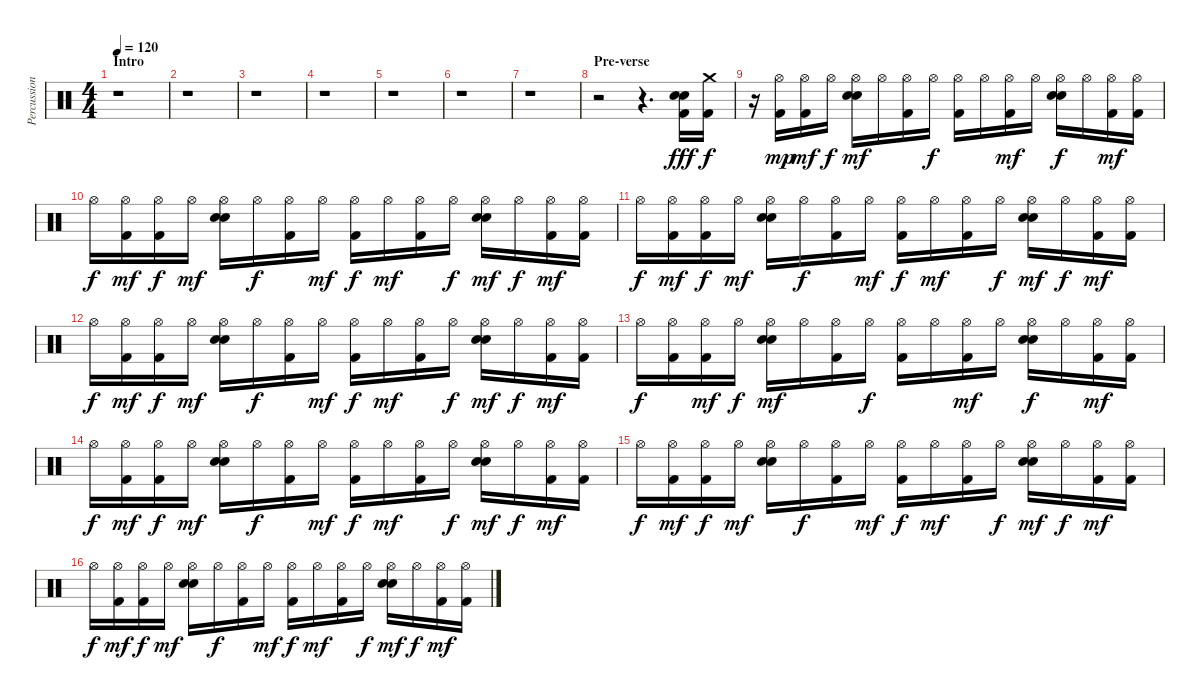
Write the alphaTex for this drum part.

\track ("Percussions" "Percussion") {instrument percussion}
\staff {score}
\articulation defaults
\ts (4 4)
\section ("" "Intro")
\tempo 120
\clef neutral
\ks c
r.1{dy fff} |
r.1 |
r.1 |
r.1 |
r.1 |
r.1 |
r.1 |
\section ("" "Pre-verse")
r.2 r.4{d} ("Snare (hit) 2" "Electric Snare (hit)" "Kick (hit) 2").16 ("Crash medium (hit)" "Kick (hit) 2").16{dy f} |
r.16 ("Hi-Hat (open)" "Kick (hit) 2").16{dy mp} ("Hi-Hat (open)" "Kick (hit) 2").16{dy mf} "Hi-Hat (open)".16{dy f} ("Hi-Hat (open)" "Snare (hit) 2" "Electric Snare (hit)").16{dy mf} "Hi-Hat (open)".16 ("Hi-Hat (open)" "Kick (hit) 2").16 "Hi-Hat (open)".16{dy f} ("Hi-Hat (open)" "Kick (hit) 2").16 "Hi-Hat (open)".16 ("Hi-Hat (open)" "Kick (hit) 2").16{dy mf} "Hi-Hat (open)".16 ("Hi-Hat (open)" "Snare (hit) 2" "Electric Snare (hit)").16{dy f} "Hi-Hat (open)".16 ("Hi-Hat (open)" "Kick (hit) 2").16{dy mf} ("Hi-Hat (open)" "Kick (hit) 2").16 |
"Hi-Hat (open)".16{dy f} ("Hi-Hat (open)" "Kick (hit) 2").16{dy mf} ("Hi-Hat (open)" "Kick (hit) 2").16{dy f} "Hi-Hat (open)".16{dy mf} ("Hi-Hat (open)" "Snare (hit) 2" "Electric Snare (hit)").16 "Hi-Hat (open)".16{dy f} ("Hi-Hat (open)" "Kick (hit) 2").16 "Hi-Hat (open)".16{dy mf} ("Hi-Hat (open)" "Kick (hit) 2").16{dy f} "Hi-Hat (open)".16{dy mf} ("Hi-Hat (open)" "Kick (hit) 2").16 "Hi-Hat (open)".16{dy f} ("Hi-Hat (open)" "Snare (hit) 2" "Electric Snare (hit)").16{dy mf} "Hi-Hat (open)".16{dy f} ("Hi-Hat (open)" "Kick (hit) 2").16{dy mf} ("Hi-Hat (open)" "Kick (hit) 2").16 |
"Hi-Hat (open)".16{dy f} ("Hi-Hat (open)" "Kick (hit) 2").16{dy mf} ("Hi-Hat (open)" "Kick (hit) 2").16{dy f} "Hi-Hat (open)".16{dy mf} ("Hi-Hat (open)" "Snare (hit) 2" "Electric Snare (hit)").16 "Hi-Hat (open)".16{dy f} ("Hi-Hat (open)" "Kick (hit) 2").16 "Hi-Hat (open)".16{dy mf} ("Hi-Hat (open)" "Kick (hit) 2").16{dy f} "Hi-Hat (open)".16{dy mf} ("Hi-Hat (open)" "Kick (hit) 2").16 "Hi-Hat (open)".16{dy f} ("Hi-Hat (open)" "Snare (hit) 2" "Electric Snare (hit)").16{dy mf} "Hi-Hat (open)".16{dy f} ("Hi-Hat (open)" "Kick (hit) 2").16{dy mf} ("Hi-Hat (open)" "Kick (hit) 2").16 |
"Hi-Hat (open)".16{dy f} ("Hi-Hat (open)" "Kick (hit) 2").16{dy mf} ("Hi-Hat (open)" "Kick (hit) 2").16{dy f} "Hi-Hat (open)".16{dy mf} ("Hi-Hat (open)" "Snare (hit) 2" "Electric Snare (hit)").16 "Hi-Hat (open)".16{dy f} ("Hi-Hat (open)" "Kick (hit) 2").16 "Hi-Hat (open)".16{dy mf} ("Hi-Hat (open)" "Kick (hit) 2").16{dy f} "Hi-Hat (open)".16{dy mf} ("Hi-Hat (open)" "Kick (hit) 2").16 "Hi-Hat (open)".16{dy f} ("Hi-Hat (open)" "Snare (hit) 2" "Electric Snare (hit)").16{dy mf} "Hi-Hat (open)".16{dy f} ("Hi-Hat (open)" "Kick (hit) 2").16{dy mf} ("Hi-Hat (open)" "Kick (hit) 2").16 |
"Hi-Hat (open)".16{dy f} ("Hi-Hat (open)" "Kick (hit) 2").16 ("Hi-Hat (open)" "Kick (hit) 2").16{dy mf} "Hi-Hat (open)".16{dy f} ("Hi-Hat (open)" "Snare (hit) 2" "Electric Snare (hit)").16{dy mf} "Hi-Hat (open)".16 ("Hi-Hat (open)" "Kick (hit) 2").16 "Hi-Hat (open)".16{dy f} ("Hi-Hat (open)" "Kick (hit) 2").16 "Hi-Hat (open)".16 ("Hi-Hat (open)" "Kick (hit) 2").16{dy mf} "Hi-Hat (open)".16 ("Hi-Hat (open)" "Snare (hit) 2" "Electric Snare (hit)").16{dy f} "Hi-Hat (open)".16 ("Hi-Hat (open)" "Kick (hit) 2").16{dy mf} ("Hi-Hat (open)" "Kick (hit) 2").16 |
"Hi-Hat (open)".16{dy f} ("Hi-Hat (open)" "Kick (hit) 2").16{dy mf} ("Hi-Hat (open)" "Kick (hit) 2").16{dy f} "Hi-Hat (open)".16{dy mf} ("Hi-Hat (open)" "Snare (hit) 2" "Electric Snare (hit)").16 "Hi-Hat (open)".16{dy f} ("Hi-Hat (open)" "Kick (hit) 2").16 "Hi-Hat (open)".16{dy mf} ("Hi-Hat (open)" "Kick (hit) 2").16{dy f} "Hi-Hat (open)".16{dy mf} ("Hi-Hat (open)" "Kick (hit) 2").16 "Hi-Hat (open)".16{dy f} ("Hi-Hat (open)" "Snare (hit) 2" "Electric Snare (hit)").16{dy mf} "Hi-Hat (open)".16{dy f} ("Hi-Hat (open)" "Kick (hit) 2").16{dy mf} ("Hi-Hat (open)" "Kick (hit) 2").16 |
"Hi-Hat (open)".16{dy f} ("Hi-Hat (open)" "Kick (hit) 2").16{dy mf} ("Hi-Hat (open)" "Kick (hit) 2").16{dy f} "Hi-Hat (open)".16{dy mf} ("Hi-Hat (open)" "Snare (hit) 2" "Electric Snare (hit)").16 "Hi-Hat (open)".16{dy f} ("Hi-Hat (open)" "Kick (hit) 2").16 "Hi-Hat (open)".16{dy mf} ("Hi-Hat (open)" "Kick (hit) 2").16{dy f} "Hi-Hat (open)".16{dy mf} ("Hi-Hat (open)" "Kick (hit) 2").16 "Hi-Hat (open)".16{dy f} ("Hi-Hat (open)" "Snare (hit) 2" "Electric Snare (hit)").16{dy mf} "Hi-Hat (open)".16{dy f} ("Hi-Hat (open)" "Kick (hit) 2").16{dy mf} ("Hi-Hat (open)" "Kick (hit) 2").16 |
"Hi-Hat (open)".16{dy f} ("Hi-Hat (open)" "Kick (hit) 2").16{dy mf} ("Hi-Hat (open)" "Kick (hit) 2").16{dy f} "Hi-Hat (open)".16{dy mf} ("Hi-Hat (open)" "Snare (hit) 2" "Electric Snare (hit)").16 "Hi-Hat (open)".16{dy f} ("Hi-Hat (open)" "Kick (hit) 2").16 "Hi-Hat (open)".16{dy mf} ("Hi-Hat (open)" "Kick (hit) 2").16{dy f} "Hi-Hat (open)".16{dy mf} ("Hi-Hat (open)" "Kick (hit) 2").16 "Hi-Hat (open)".16{dy f} ("Hi-Hat (open)" "Snare (hit) 2" "Electric Snare (hit)").16{dy mf} "Hi-Hat (open)".16{dy f} ("Hi-Hat (open)" "Kick (hit) 2").16{dy mf} ("Hi-Hat (open)" "Kick (hit) 2").16
